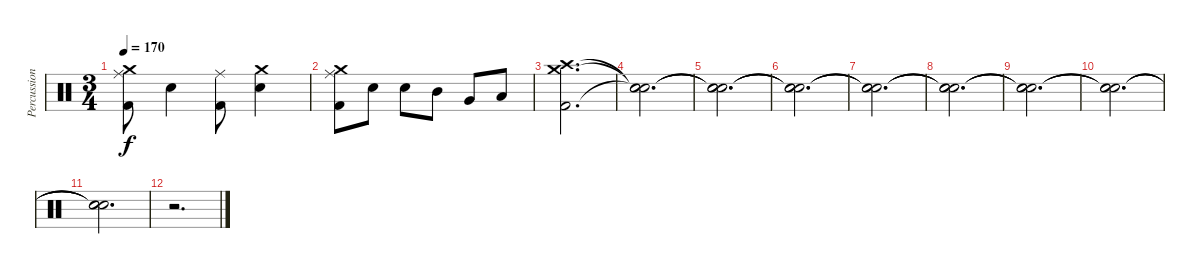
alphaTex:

\track ("Percussion" "Percussion") {instrument percussion}
\staff {score}
\articulation defaults
\ts (3 4)
\tempo 170
\clef neutral
\ks c
("Ride (middle)" "Crash medium (hit)" "Kick (hit) 2").8{dy f} "Electric Snare (hit)".4 ("Ride (middle)" "Kick (hit) 2").8 ("Crash medium (hit)" "Electric Snare (hit)").4 |
("Ride (middle)" "Crash medium (hit)" "Kick (hit) 2").8 "Electric Snare (hit)".8 "Electric Snare (hit)".8 "Mid Tom (hit)".8 "Very Low Tom (hit)".8 "Low Floor Tom (hit)".8 |
("Crash medium (hit)" "Crash high (hit)" "Kick (hit) 2").2{d} |
("Snare (hit)"{t} "Snare (hit)"{t} "Snare (hit)"{t}).2{d} |
("Snare (hit)"{t} "Snare (hit)"{t} "Snare (hit)"{t}).2{d} |
("Snare (hit)"{t} "Snare (hit)"{t} "Snare (hit)"{t}).2{d} |
("Snare (hit)"{t} "Snare (hit)"{t} "Snare (hit)"{t}).2{d} |
("Snare (hit)"{t} "Snare (hit)"{t} "Snare (hit)"{t}).2{d} |
("Snare (hit)"{t} "Snare (hit)"{t} "Snare (hit)"{t}).2{d} |
("Snare (hit)"{t} "Snare (hit)"{t} "Snare (hit)"{t}).2{d} |
("Snare (hit)"{t} "Snare (hit)"{t} "Snare (hit)"{t}).2{d} |
r.2{d}
